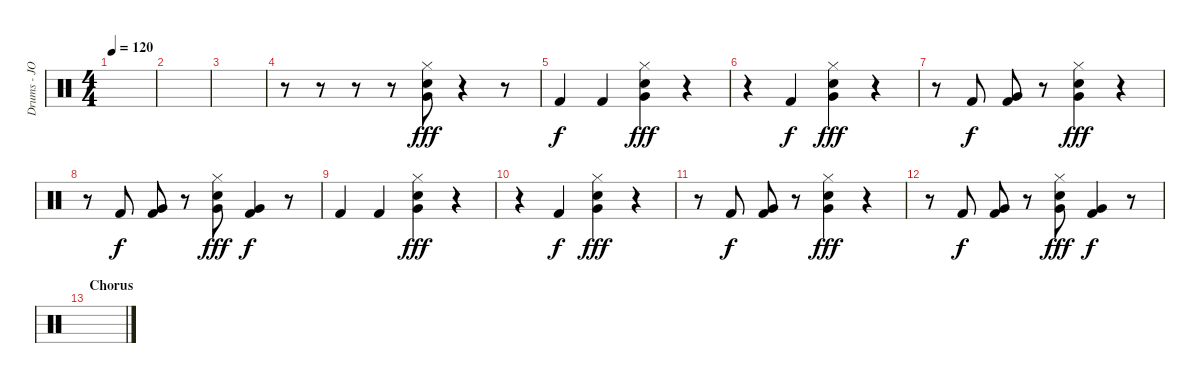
\track ("Drums - JOHN" "Drums - JO") {instrument percussion}
\staff {score}
\articulation defaults
\ts (4 4)
\tempo 120
\clef neutral
\ks c
|
|
|
r.8 r.8 r.8 r.8 ("Hi-Hat (closed)" "Very Low Tom (hit)" "Snare (hit) 2").8{dy fff} r.4 r.8 |
"Kick (hit) 2".4{dy f} "Kick (hit) 2".4 ("Hi-Hat (closed)" "Very Low Tom (hit)" "Snare (hit) 2").4{dy fff} r.4 |
r.4 "Kick (hit) 2".4{dy f} ("Hi-Hat (closed)" "Very Low Tom (hit)" "Snare (hit) 2").4{dy fff} r.4 |
r.8 "Kick (hit) 2".8{dy f} ("Very Low Tom (hit)" "Kick (hit) 2").8 r.8 ("Hi-Hat (closed)" "Very Low Tom (hit)" "Snare (hit) 2").4{dy fff} r.4 |
r.8 "Kick (hit) 2".8{dy f} ("Very Low Tom (hit)" "Kick (hit) 2").8 r.8 ("Hi-Hat (closed)" "Very Low Tom (hit)" "Snare (hit) 2").8{dy fff} ("Very Low Tom (hit)" "Kick (hit) 2").4{dy f} r.8 |
"Kick (hit) 2".4 "Kick (hit) 2".4 ("Hi-Hat (closed)" "Very Low Tom (hit)" "Snare (hit) 2").4{dy fff} r.4 |
r.4 "Kick (hit) 2".4{dy f} ("Hi-Hat (closed)" "Very Low Tom (hit)" "Snare (hit) 2").4{dy fff} r.4 |
r.8 "Kick (hit) 2".8{dy f} ("Very Low Tom (hit)" "Kick (hit) 2").8 r.8 ("Hi-Hat (closed)" "Very Low Tom (hit)" "Snare (hit) 2").4{dy fff} r.4 |
r.8 "Kick (hit) 2".8{dy f} ("Very Low Tom (hit)" "Kick (hit) 2").8 r.8 ("Hi-Hat (closed)" "Very Low Tom (hit)" "Snare (hit) 2").8{dy fff} ("Very Low Tom (hit)" "Kick (hit) 2").4{dy f} r.8 |
\section ("" "Chorus")
